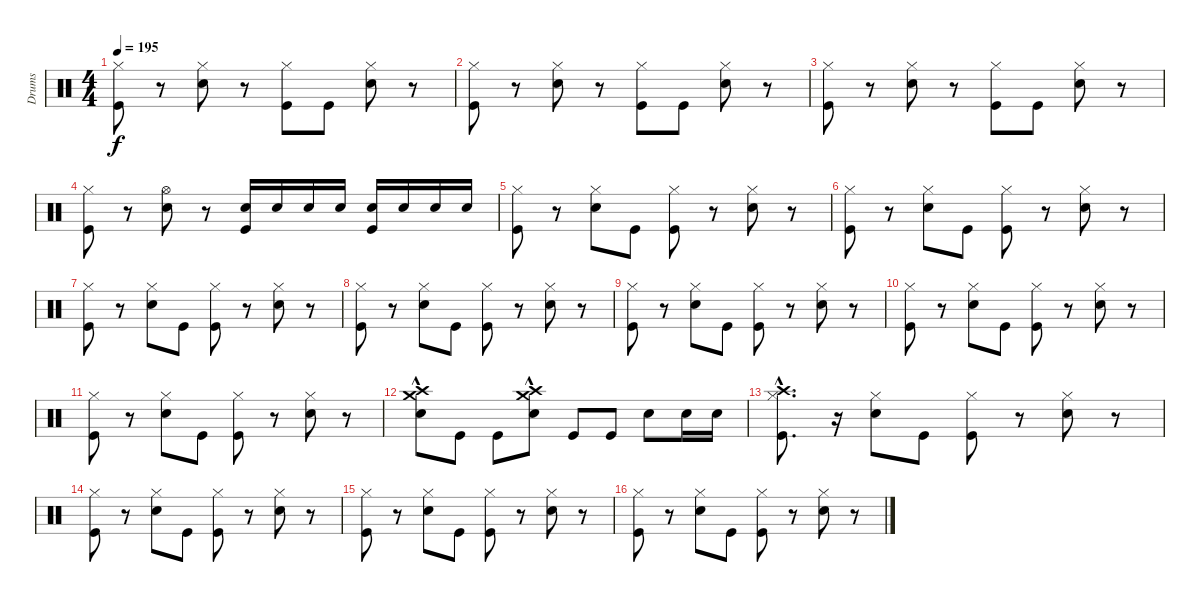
\track ("Drums" "Drums") {instrument percussion}
\staff {score}
\articulation defaults
\ts (4 4)
\tempo 195
\clef neutral
\ks c
("Kick (hit)" "Hi-Hat (closed)").8{dy f} r.8 ("Electric Snare (hit)" "Hi-Hat (closed)").8 r.8 ("Kick (hit)" "Hi-Hat (closed)").8 "Kick (hit)".8 ("Hi-Hat (closed)" "Electric Snare (hit)").8 r.8 |
("Kick (hit)" "Hi-Hat (closed)").8 r.8 ("Hi-Hat (closed)" "Electric Snare (hit)").8 r.8 ("Kick (hit)" "Hi-Hat (closed)").8 "Kick (hit)".8 ("Electric Snare (hit)" "Hi-Hat (closed)").8 r.8 |
("Kick (hit)" "Hi-Hat (closed)").8 r.8 ("Hi-Hat (closed)" "Electric Snare (hit)").8 r.8 ("Kick (hit)" "Hi-Hat (closed)").8 "Kick (hit)".8 ("Electric Snare (hit)" "Hi-Hat (closed)").8 r.8 |
("Kick (hit)" "Hi-Hat (closed)").8 r.8 ("Hi-Hat (open)" "Electric Snare (hit)").8 r.8 ("Kick (hit)" "Electric Snare (hit)").16 "Electric Snare (hit)".16 "Electric Snare (hit)".16 "Electric Snare (hit)".16 ("Kick (hit)" "Electric Snare (hit)").16 "Electric Snare (hit)".16 "Electric Snare (hit)".16 "Electric Snare (hit)".16 |
("Hi-Hat (closed)" "Kick (hit)").8 r.8 ("Electric Snare (hit)" "Hi-Hat (closed)").8 "Kick (hit)".8 ("Hi-Hat (closed)" "Kick (hit)").8 r.8 ("Electric Snare (hit)" "Hi-Hat (closed)").8 r.8 |
("Kick (hit)" "Hi-Hat (closed)").8 r.8 ("Hi-Hat (closed)" "Electric Snare (hit)").8 "Kick (hit)".8 ("Hi-Hat (closed)" "Kick (hit)").8 r.8 ("Hi-Hat (closed)" "Electric Snare (hit)").8 r.8 |
("Hi-Hat (closed)" "Kick (hit)").8 r.8 ("Hi-Hat (closed)" "Electric Snare (hit)").8 "Kick (hit)".8 ("Kick (hit)" "Hi-Hat (closed)").8 r.8 ("Hi-Hat (closed)" "Electric Snare (hit)").8 r.8 |
("Kick (hit)" "Hi-Hat (closed)").8 r.8 ("Electric Snare (hit)" "Hi-Hat (closed)").8 "Kick (hit)".8 ("Hi-Hat (closed)" "Kick (hit)").8 r.8 ("Hi-Hat (closed)" "Electric Snare (hit)").8 r.8 |
("Kick (hit)" "Hi-Hat (closed)").8 r.8 ("Electric Snare (hit)" "Hi-Hat (closed)").8 "Kick (hit)".8 ("Hi-Hat (closed)" "Kick (hit)").8 r.8 ("Hi-Hat (closed)" "Electric Snare (hit)").8 r.8 |
("Hi-Hat (closed)" "Kick (hit)").8 r.8 ("Hi-Hat (closed)" "Electric Snare (hit)").8 "Kick (hit)".8 ("Hi-Hat (closed)" "Kick (hit)").8 r.8 ("Hi-Hat (closed)" "Electric Snare (hit)").8 r.8 |
("Hi-Hat (closed)" "Kick (hit)").8 r.8 ("Electric Snare (hit)" "Hi-Hat (closed)").8 "Kick (hit)".8 ("Kick (hit)" "Hi-Hat (closed)").8 r.8 ("Hi-Hat (closed)" "Electric Snare (hit)").8 r.8 |
("Crash medium (hit)"{hac} "Crash high (hit)"{hac} "Electric Snare (hit)").8 "Kick (hit)".8 "Kick (hit)".8 ("Electric Snare (hit)" "Crash high (hit)"{hac} "Crash medium (hit)"{hac}).8 "Kick (hit)".8 "Kick (hit)".8 "Electric Snare (hit)".8 "Electric Snare (hit)".16 "Electric Snare (hit)".16 |
("Crash high (hit)"{hac} "Kick (hit)" "Hi-Hat (closed)").8{d} r.16 ("Hi-Hat (closed)" "Electric Snare (hit)").8 "Kick (hit)".8 ("Kick (hit)" "Hi-Hat (closed)").8 r.8 ("Electric Snare (hit)" "Hi-Hat (closed)").8 r.8 |
("Kick (hit)" "Hi-Hat (closed)").8 r.8 ("Electric Snare (hit)" "Hi-Hat (closed)").8 "Kick (hit)".8 ("Kick (hit)" "Hi-Hat (closed)").8 r.8 ("Hi-Hat (closed)" "Electric Snare (hit)").8 r.8 |
("Kick (hit)" "Hi-Hat (closed)").8 r.8 ("Electric Snare (hit)" "Hi-Hat (closed)").8 "Kick (hit)".8 ("Hi-Hat (closed)" "Kick (hit)").8 r.8 ("Hi-Hat (closed)" "Electric Snare (hit)").8 r.8 |
("Kick (hit)" "Hi-Hat (closed)").8 r.8 ("Hi-Hat (closed)" "Electric Snare (hit)").8 "Kick (hit)".8 ("Kick (hit)" "Hi-Hat (closed)").8 r.8 ("Electric Snare (hit)" "Hi-Hat (closed)").8 r.8
